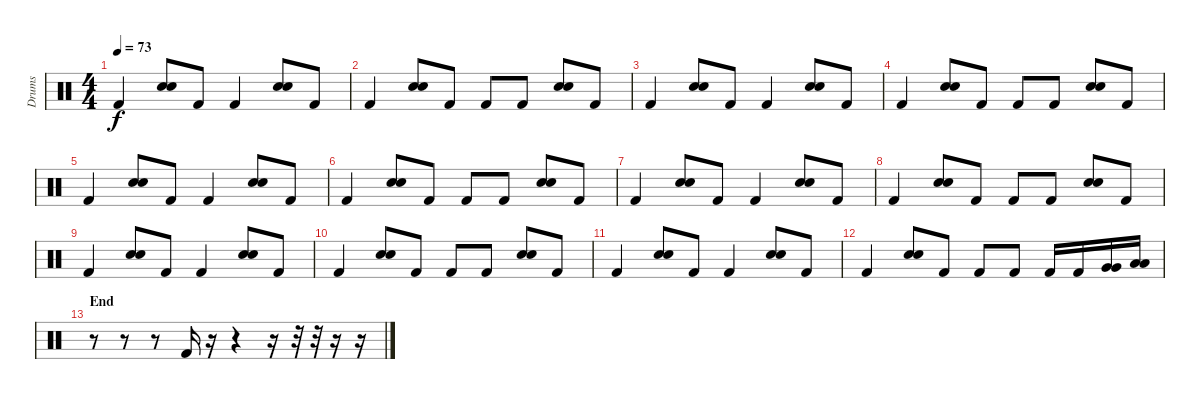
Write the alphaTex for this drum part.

\track ("Drums" "Drums") {instrument percussion}
\staff {score}
\articulation defaults
\ts (4 4)
\tempo 73
\clef neutral
\ks c "Kick (hit) 2".4{dy f}
("Electric Snare (hit)" "Snare (hit) 2").8 "Kick (hit) 2".8 "Kick (hit) 2".4 ("Electric Snare (hit)" "Snare (hit) 2").8 "Kick (hit) 2".8 |
"Kick (hit) 2".4 ("Electric Snare (hit)" "Snare (hit) 2").8 "Kick (hit) 2".8 "Kick (hit) 2".8 "Kick (hit) 2".8 ("Electric Snare (hit)" "Snare (hit) 2").8 "Kick (hit) 2".8 |
"Kick (hit) 2".4 ("Electric Snare (hit)" "Snare (hit) 2").8 "Kick (hit) 2".8 "Kick (hit) 2".4 ("Electric Snare (hit)" "Snare (hit) 2").8 "Kick (hit) 2".8 |
"Kick (hit) 2".4 ("Electric Snare (hit)" "Snare (hit) 2").8 "Kick (hit) 2".8 "Kick (hit) 2".8 "Kick (hit) 2".8 ("Electric Snare (hit)" "Snare (hit) 2").8 "Kick (hit) 2".8 |
"Kick (hit) 2".4 ("Electric Snare (hit)" "Snare (hit) 2").8 "Kick (hit) 2".8 "Kick (hit) 2".4 ("Electric Snare (hit)" "Snare (hit) 2").8 "Kick (hit) 2".8 |
"Kick (hit) 2".4 ("Electric Snare (hit)" "Snare (hit) 2").8 "Kick (hit) 2".8 "Kick (hit) 2".8 "Kick (hit) 2".8 ("Electric Snare (hit)" "Snare (hit) 2").8 "Kick (hit) 2".8 |
"Kick (hit) 2".4 ("Electric Snare (hit)" "Snare (hit) 2").8 "Kick (hit) 2".8 "Kick (hit) 2".4 ("Electric Snare (hit)" "Snare (hit) 2").8 "Kick (hit) 2".8 |
"Kick (hit) 2".4 ("Electric Snare (hit)" "Snare (hit) 2").8 "Kick (hit) 2".8 "Kick (hit) 2".8 "Kick (hit) 2".8 ("Electric Snare (hit)" "Snare (hit) 2").8 "Kick (hit) 2".8 |
"Kick (hit) 2".4 ("Electric Snare (hit)" "Snare (hit) 2").8 "Kick (hit) 2".8 "Kick (hit) 2".4 ("Electric Snare (hit)" "Snare (hit) 2").8 "Kick (hit) 2".8 |
"Kick (hit) 2".4 ("Electric Snare (hit)" "Snare (hit) 2").8 "Kick (hit) 2".8 "Kick (hit) 2".8 "Kick (hit) 2".8 ("Electric Snare (hit)" "Snare (hit) 2").8 "Kick (hit) 2".8 |
"Kick (hit) 2".4 ("Electric Snare (hit)" "Snare (hit) 2").8 "Kick (hit) 2".8 "Kick (hit) 2".4 ("Electric Snare (hit)" "Snare (hit) 2").8 "Kick (hit) 2".8 |
"Kick (hit) 2".4 ("Electric Snare (hit)" "Snare (hit) 2").8 "Kick (hit) 2".8 "Kick (hit) 2".8 "Kick (hit) 2".8 "Kick (hit) 2".16 "Kick (hit) 2".16 ("Very Low Tom (hit)" "Very Low Tom (hit)").16 ("Low Floor Tom (hit)" "Low Floor Tom (hit)").16 |
\section ("" "End")
r.8 r.8 r.8 "Kick (hit) 2".16 r.16 r.4 r.16 r.32 r.32 r.16 r.16
